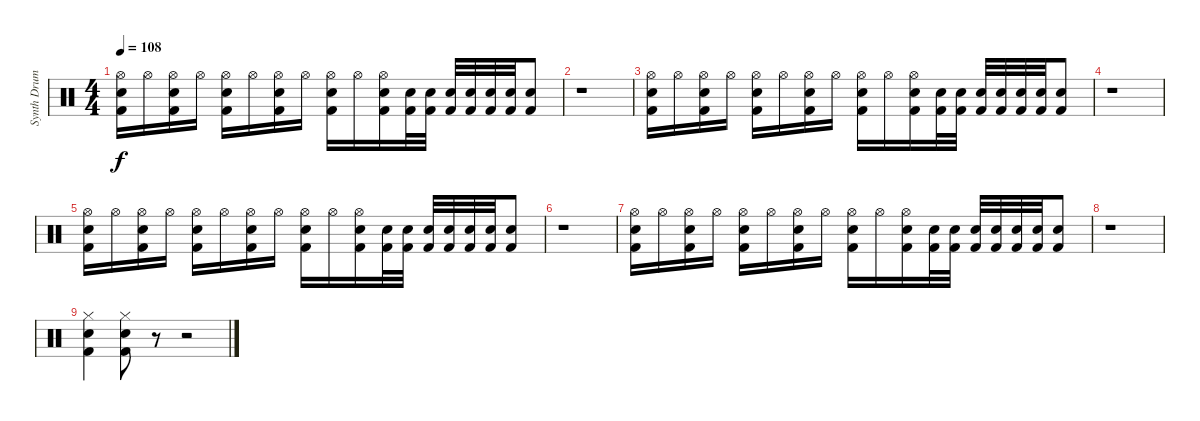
\track ("Synth Drums && percs" "Synth Drum") {instrument percussion}
\staff {score}
\articulation defaults
\ts (4 4)
\tempo 108
\clef neutral
\ks c
("Hi-Hat (open)" "Snare (hit) 2" "Kick (hit) 2").16{dy f} "Hi-Hat (open)".16 ("Hi-Hat (open)" "Snare (hit) 2" "Kick (hit) 2").16 "Hi-Hat (open)".16 ("Hi-Hat (open)" "Snare (hit) 2" "Kick (hit) 2").16 "Hi-Hat (open)".16 ("Hi-Hat (open)" "Snare (hit) 2" "Kick (hit) 2").16 "Hi-Hat (open)".16 ("Hi-Hat (open)" "Snare (hit) 2" "Kick (hit) 2").16 "Hi-Hat (open)".16 ("Hi-Hat (open)" "Snare (hit) 2" "Kick (hit) 2").16 ("Snare (hit) 2" "Kick (hit) 2").32 ("Snare (hit) 2" "Kick (hit) 2").32 ("Snare (hit) 2" "Kick (hit) 2").32 ("Snare (hit) 2" "Kick (hit) 2").32 ("Snare (hit) 2" "Kick (hit) 2").32 ("Snare (hit) 2" "Kick (hit) 2").32 ("Snare (hit) 2" "Kick (hit) 2").8 |
r.1 |
("Hi-Hat (open)" "Snare (hit) 2" "Kick (hit) 2").16 "Hi-Hat (open)".16 ("Hi-Hat (open)" "Snare (hit) 2" "Kick (hit) 2").16 "Hi-Hat (open)".16 ("Hi-Hat (open)" "Snare (hit) 2" "Kick (hit) 2").16 "Hi-Hat (open)".16 ("Hi-Hat (open)" "Snare (hit) 2" "Kick (hit) 2").16 "Hi-Hat (open)".16 ("Hi-Hat (open)" "Snare (hit) 2" "Kick (hit) 2").16 "Hi-Hat (open)".16 ("Hi-Hat (open)" "Snare (hit) 2" "Kick (hit) 2").16 ("Snare (hit) 2" "Kick (hit) 2").32 ("Snare (hit) 2" "Kick (hit) 2").32 ("Snare (hit) 2" "Kick (hit) 2").32 ("Snare (hit) 2" "Kick (hit) 2").32 ("Snare (hit) 2" "Kick (hit) 2").32 ("Snare (hit) 2" "Kick (hit) 2").32 ("Snare (hit) 2" "Kick (hit) 2").8 |
r.1 |
("Hi-Hat (open)" "Snare (hit) 2" "Kick (hit) 2").16 "Hi-Hat (open)".16 ("Hi-Hat (open)" "Snare (hit) 2" "Kick (hit) 2").16 "Hi-Hat (open)".16 ("Hi-Hat (open)" "Snare (hit) 2" "Kick (hit) 2").16 "Hi-Hat (open)".16 ("Hi-Hat (open)" "Snare (hit) 2" "Kick (hit) 2").16 "Hi-Hat (open)".16 ("Hi-Hat (open)" "Snare (hit) 2" "Kick (hit) 2").16 "Hi-Hat (open)".16 ("Hi-Hat (open)" "Snare (hit) 2" "Kick (hit) 2").16 ("Snare (hit) 2" "Kick (hit) 2").32 ("Snare (hit) 2" "Kick (hit) 2").32 ("Snare (hit) 2" "Kick (hit) 2").32 ("Snare (hit) 2" "Kick (hit) 2").32 ("Snare (hit) 2" "Kick (hit) 2").32 ("Snare (hit) 2" "Kick (hit) 2").32 ("Snare (hit) 2" "Kick (hit) 2").8 |
r.1 |
("Hi-Hat (open)" "Snare (hit) 2" "Kick (hit) 2").16 "Hi-Hat (open)".16 ("Hi-Hat (open)" "Snare (hit) 2" "Kick (hit) 2").16 "Hi-Hat (open)".16 ("Hi-Hat (open)" "Snare (hit) 2" "Kick (hit) 2").16 "Hi-Hat (open)".16 ("Hi-Hat (open)" "Snare (hit) 2" "Kick (hit) 2").16 "Hi-Hat (open)".16 ("Hi-Hat (open)" "Snare (hit) 2" "Kick (hit) 2").16 "Hi-Hat (open)".16 ("Hi-Hat (open)" "Snare (hit) 2" "Kick (hit) 2").16 ("Snare (hit) 2" "Kick (hit) 2").32 ("Snare (hit) 2" "Kick (hit) 2").32 ("Snare (hit) 2" "Kick (hit) 2").32 ("Snare (hit) 2" "Kick (hit) 2").32 ("Snare (hit) 2" "Kick (hit) 2").32 ("Snare (hit) 2" "Kick (hit) 2").32 ("Snare (hit) 2" "Kick (hit) 2").8 |
r.1 |
("Hi-Hat (closed)" "Snare (hit) 2" "Kick (hit) 2").4 ("Hi-Hat (closed)" "Snare (hit) 2" "Kick (hit) 2").8 r.8 r.2
